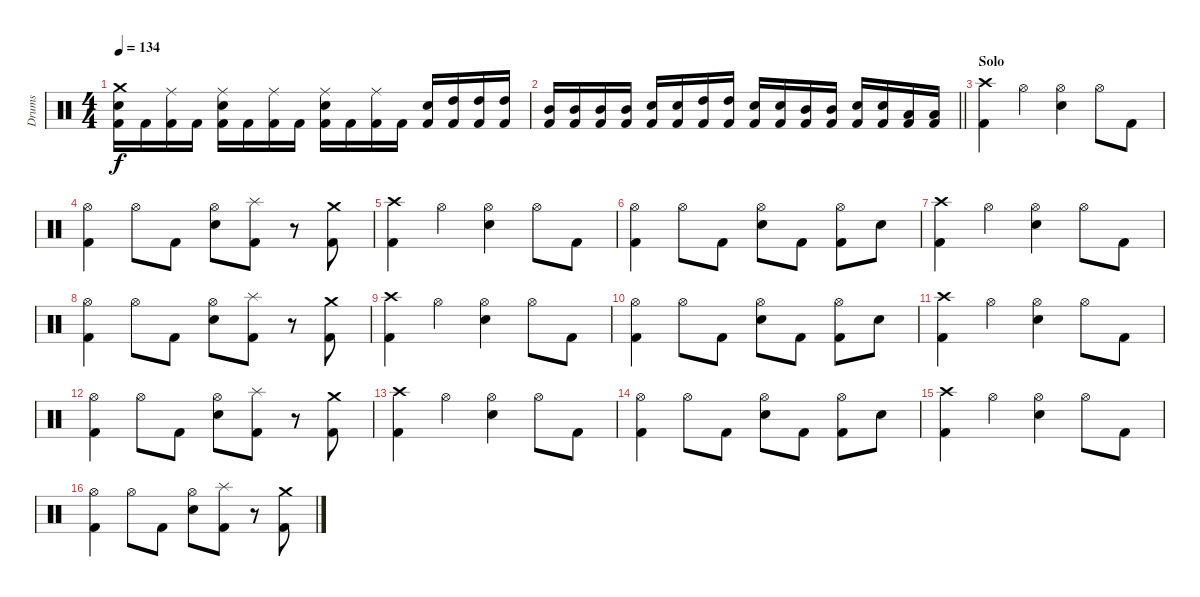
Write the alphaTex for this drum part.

\track ("Drums" "Drums") {instrument percussion}
\staff {score}
\articulation defaults
\ts (4 4)
\tempo 134
\clef neutral
\ks c
("Crash medium (hit)" "Electric Snare (hit)" "Kick (hit) 2").16{dy f} "Kick (hit) 2".16 ("Ride (middle)" "Kick (hit) 2").16 "Kick (hit) 2".16 ("Ride (middle)" "Electric Snare (hit)" "Kick (hit) 2").16 "Kick (hit) 2".16 ("Ride (middle)" "Kick (hit) 2").16 "Kick (hit) 2".16 ("Ride (middle)" "Electric Snare (hit)" "Kick (hit) 2").16 "Kick (hit) 2".16 ("Ride (middle)" "Kick (hit) 2").16 "Kick (hit) 2".16 ("Electric Snare (hit)" "Kick (hit) 2").16 ("High Tom (hit)" "Kick (hit) 2").16 ("High Tom (hit)" "Kick (hit) 2").16 ("High Tom (hit)" "Kick (hit) 2").16 |
\barLineRight lightlight
("Mid Tom (hit)" "Kick (hit) 2").16 ("Mid Tom (hit)" "Kick (hit) 2").16 ("Mid Tom (hit)" "Kick (hit) 2").16 ("Mid Tom (hit)" "Kick (hit) 2").16 ("Electric Snare (hit)" "Kick (hit) 2").16 ("Electric Snare (hit)" "Kick (hit) 2").16 ("High Tom (hit)" "Kick (hit) 2").16 ("High Tom (hit)" "Kick (hit) 2").16 ("Electric Snare (hit)" "Kick (hit) 2").16 ("Electric Snare (hit)" "Kick (hit) 2").16 ("Mid Tom (hit)" "Kick (hit) 2").16 ("Mid Tom (hit)" "Kick (hit) 2").16 ("Electric Snare (hit)" "Kick (hit) 2").16 ("Electric Snare (hit)" "Kick (hit) 2").16 ("Low Tom (hit)" "Kick (hit) 2").16 ("Low Tom (hit)" "Kick (hit) 2").16 |
\section ("" "Solo")
("Crash high (hit)" "Kick (hit) 2").4 "Hi-Hat (open)".4 ("Hi-Hat (open)" "Electric Snare (hit)").4 "Hi-Hat (open)".8 "Kick (hit) 2".8 |
("Hi-Hat (open)" "Kick (hit) 2").4 "Hi-Hat (open)".8 "Kick (hit) 2".8 ("Hi-Hat (open)" "Electric Snare (hit)").8 ("Splash (hit)" "Kick (hit) 2").8 r.8 ("Crash medium (hit)" "Kick (hit) 2").8 |
("Crash high (hit)" "Kick (hit) 2").4 "Hi-Hat (open)".4 ("Hi-Hat (open)" "Electric Snare (hit)").4 "Hi-Hat (open)".8 "Kick (hit) 2".8 |
("Hi-Hat (open)" "Kick (hit) 2").4 "Hi-Hat (open)".8 "Kick (hit) 2".8 ("Hi-Hat (open)" "Electric Snare (hit)").8 "Kick (hit) 2".8 ("Hi-Hat (open)" "Kick (hit) 2").8 "Electric Snare (hit)".8 |
("Crash high (hit)" "Kick (hit) 2").4 "Hi-Hat (open)".4 ("Hi-Hat (open)" "Electric Snare (hit)").4 "Hi-Hat (open)".8 "Kick (hit) 2".8 |
("Hi-Hat (open)" "Kick (hit) 2").4 "Hi-Hat (open)".8 "Kick (hit) 2".8 ("Hi-Hat (open)" "Electric Snare (hit)").8 ("Splash (hit)" "Kick (hit) 2").8 r.8 ("Crash medium (hit)" "Kick (hit) 2").8 |
("Crash high (hit)" "Kick (hit) 2").4 "Hi-Hat (open)".4 ("Hi-Hat (open)" "Electric Snare (hit)").4 "Hi-Hat (open)".8 "Kick (hit) 2".8 |
("Hi-Hat (open)" "Kick (hit) 2").4 "Hi-Hat (open)".8 "Kick (hit) 2".8 ("Hi-Hat (open)" "Electric Snare (hit)").8 "Kick (hit) 2".8 ("Hi-Hat (open)" "Kick (hit) 2").8 "Electric Snare (hit)".8 |
("Crash high (hit)" "Kick (hit) 2").4 "Hi-Hat (open)".4 ("Hi-Hat (open)" "Electric Snare (hit)").4 "Hi-Hat (open)".8 "Kick (hit) 2".8 |
("Hi-Hat (open)" "Kick (hit) 2").4 "Hi-Hat (open)".8 "Kick (hit) 2".8 ("Hi-Hat (open)" "Electric Snare (hit)").8 ("Splash (hit)" "Kick (hit) 2").8 r.8 ("Crash medium (hit)" "Kick (hit) 2").8 |
("Crash high (hit)" "Kick (hit) 2").4 "Hi-Hat (open)".4 ("Hi-Hat (open)" "Electric Snare (hit)").4 "Hi-Hat (open)".8 "Kick (hit) 2".8 |
("Hi-Hat (open)" "Kick (hit) 2").4 "Hi-Hat (open)".8 "Kick (hit) 2".8 ("Hi-Hat (open)" "Electric Snare (hit)").8 "Kick (hit) 2".8 ("Hi-Hat (open)" "Kick (hit) 2").8 "Electric Snare (hit)".8 |
("Crash high (hit)" "Kick (hit) 2").4 "Hi-Hat (open)".4 ("Hi-Hat (open)" "Electric Snare (hit)").4 "Hi-Hat (open)".8 "Kick (hit) 2".8 |
("Hi-Hat (open)" "Kick (hit) 2").4 "Hi-Hat (open)".8 "Kick (hit) 2".8 ("Hi-Hat (open)" "Electric Snare (hit)").8 ("Splash (hit)" "Kick (hit) 2").8 r.8 ("Crash medium (hit)" "Kick (hit) 2").8
